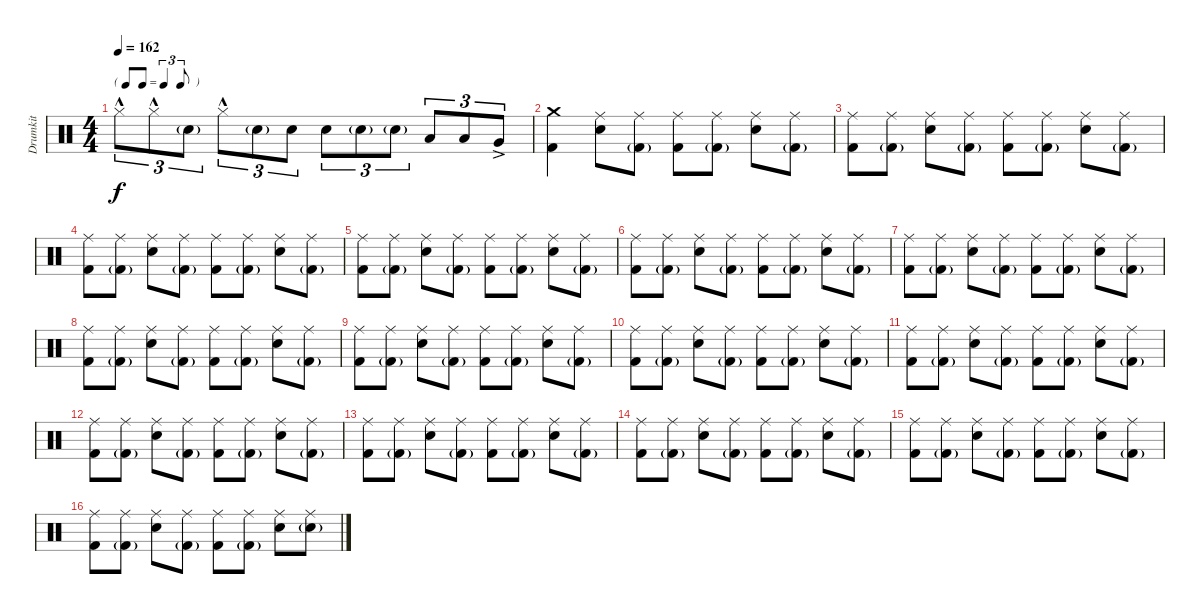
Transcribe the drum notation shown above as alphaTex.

\track ("Drumkit" "Drumkit") {instrument percussion}
\staff {score}
\articulation defaults
\ts (4 4)
\tf triplet8th
\tempo 162
\clef neutral
\ks c "Hi-Hat (closed)"{hac}.8{tu (3 2) dy f} "Hi-Hat (closed)"{hac}.8{tu (3 2)} "Snare (hit) 2"{g}.8{tu (3 2)} "Hi-Hat (closed)"{hac}.8{tu (3 2)} "Snare (hit) 2"{g}.8{tu (3 2)} "Snare (hit) 2".8{tu (3 2)} "Snare (hit) 2".8{tu (3 2)} "Snare (hit) 2"{g}.8{tu (3 2)} "Snare (hit) 2"{g}.8{tu (3 2)} "Low Tom (hit)".8{tu (3 2)} "Low Tom (hit)".8{tu (3 2)} "Very Low Tom (hit)"{ac}.8{tu (3 2)}
|
("Kick (hit) 2" "Crash medium (hit)").4 ("Snare (hit) 2" "Ride (middle)").8 ("Kick (hit) 2"{g} "Ride (middle)").8 ("Kick (hit) 2" "Ride (middle)").8 ("Kick (hit) 2"{g} "Ride (middle)").8 ("Snare (hit) 2" "Ride (middle)").8 ("Kick (hit) 2"{g} "Ride (middle)").8 |
("Kick (hit) 2" "Ride (middle)").8 ("Kick (hit) 2"{g} "Ride (middle)").8 ("Snare (hit) 2" "Ride (middle)").8 ("Kick (hit) 2"{g} "Ride (middle)").8 ("Kick (hit) 2" "Ride (middle)").8 ("Kick (hit) 2"{g} "Ride (middle)").8 ("Snare (hit) 2" "Ride (middle)").8 ("Kick (hit) 2"{g} "Ride (middle)").8 |
("Kick (hit) 2" "Ride (middle)").8 ("Kick (hit) 2"{g} "Ride (middle)").8 ("Snare (hit) 2" "Ride (middle)").8 ("Kick (hit) 2"{g} "Ride (middle)").8 ("Kick (hit) 2" "Ride (middle)").8 ("Kick (hit) 2"{g} "Ride (middle)").8 ("Snare (hit) 2" "Ride (middle)").8 ("Kick (hit) 2"{g} "Ride (middle)").8 |
("Kick (hit) 2" "Ride (middle)").8 ("Kick (hit) 2"{g} "Ride (middle)").8 ("Snare (hit) 2" "Ride (middle)").8 ("Kick (hit) 2"{g} "Ride (middle)").8 ("Kick (hit) 2" "Ride (middle)").8 ("Kick (hit) 2"{g} "Ride (middle)").8 ("Snare (hit) 2" "Ride (middle)").8 ("Kick (hit) 2"{g} "Ride (middle)").8 |
("Kick (hit) 2" "Ride (middle)").8 ("Kick (hit) 2"{g} "Ride (middle)").8 ("Snare (hit) 2" "Ride (middle)").8 ("Kick (hit) 2"{g} "Ride (middle)").8 ("Kick (hit) 2" "Ride (middle)").8 ("Kick (hit) 2"{g} "Ride (middle)").8 ("Snare (hit) 2" "Ride (middle)").8 ("Kick (hit) 2"{g} "Ride (middle)").8 |
("Kick (hit) 2" "Ride (middle)").8 ("Kick (hit) 2"{g} "Ride (middle)").8 ("Snare (hit) 2" "Ride (middle)").8 ("Kick (hit) 2"{g} "Ride (middle)").8 ("Kick (hit) 2" "Ride (middle)").8 ("Kick (hit) 2"{g} "Ride (middle)").8 ("Snare (hit) 2" "Ride (middle)").8 ("Kick (hit) 2"{g} "Ride (middle)").8 |
("Kick (hit) 2" "Ride (middle)").8 ("Kick (hit) 2"{g} "Ride (middle)").8 ("Snare (hit) 2" "Ride (middle)").8 ("Kick (hit) 2"{g} "Ride (middle)").8 ("Kick (hit) 2" "Ride (middle)").8 ("Kick (hit) 2"{g} "Ride (middle)").8 ("Snare (hit) 2" "Ride (middle)").8 ("Kick (hit) 2"{g} "Ride (middle)").8 |
("Kick (hit) 2" "Ride (middle)").8 ("Kick (hit) 2"{g} "Ride (middle)").8 ("Snare (hit) 2" "Ride (middle)").8 ("Kick (hit) 2"{g} "Ride (middle)").8 ("Kick (hit) 2" "Ride (middle)").8 ("Kick (hit) 2"{g} "Ride (middle)").8 ("Snare (hit) 2" "Ride (middle)").8 ("Kick (hit) 2"{g} "Ride (middle)").8 |
("Kick (hit) 2" "Ride (middle)").8 ("Kick (hit) 2"{g} "Ride (middle)").8 ("Snare (hit) 2" "Ride (middle)").8 ("Kick (hit) 2"{g} "Ride (middle)").8 ("Kick (hit) 2" "Ride (middle)").8 ("Kick (hit) 2"{g} "Ride (middle)").8 ("Snare (hit) 2" "Ride (middle)").8 ("Kick (hit) 2"{g} "Ride (middle)").8 |
("Kick (hit) 2" "Ride (middle)").8 ("Kick (hit) 2"{g} "Ride (middle)").8 ("Snare (hit) 2" "Ride (middle)").8 ("Kick (hit) 2"{g} "Ride (middle)").8 ("Kick (hit) 2" "Ride (middle)").8 ("Kick (hit) 2"{g} "Ride (middle)").8 ("Snare (hit) 2" "Ride (middle)").8 ("Kick (hit) 2"{g} "Ride (middle)").8 |
("Kick (hit) 2" "Ride (middle)").8 ("Kick (hit) 2"{g} "Ride (middle)").8 ("Snare (hit) 2" "Ride (middle)").8 ("Kick (hit) 2"{g} "Ride (middle)").8 ("Kick (hit) 2" "Ride (middle)").8 ("Kick (hit) 2"{g} "Ride (middle)").8 ("Snare (hit) 2" "Ride (middle)").8 ("Kick (hit) 2"{g} "Ride (middle)").8 |
("Kick (hit) 2" "Ride (middle)").8 ("Kick (hit) 2"{g} "Ride (middle)").8 ("Snare (hit) 2" "Ride (middle)").8 ("Kick (hit) 2"{g} "Ride (middle)").8 ("Kick (hit) 2" "Ride (middle)").8 ("Kick (hit) 2"{g} "Ride (middle)").8 ("Snare (hit) 2" "Ride (middle)").8 ("Kick (hit) 2"{g} "Ride (middle)").8 |
("Kick (hit) 2" "Ride (middle)").8 ("Kick (hit) 2"{g} "Ride (middle)").8 ("Snare (hit) 2" "Ride (middle)").8 ("Kick (hit) 2"{g} "Ride (middle)").8 ("Kick (hit) 2" "Ride (middle)").8 ("Kick (hit) 2"{g} "Ride (middle)").8 ("Snare (hit) 2" "Ride (middle)").8 ("Kick (hit) 2"{g} "Ride (middle)").8 |
("Kick (hit) 2" "Ride (middle)").8 ("Kick (hit) 2"{g} "Ride (middle)").8 ("Snare (hit) 2" "Ride (middle)").8 ("Kick (hit) 2"{g} "Ride (middle)").8 ("Kick (hit) 2" "Ride (middle)").8 ("Kick (hit) 2"{g} "Ride (middle)").8 ("Snare (hit) 2" "Ride (middle)").8 ("Kick (hit) 2"{g} "Ride (middle)").8 |
("Kick (hit) 2" "Ride (middle)").8 ("Kick (hit) 2"{g} "Ride (middle)").8 ("Snare (hit) 2" "Ride (middle)").8 ("Kick (hit) 2"{g} "Ride (middle)").8 ("Kick (hit) 2" "Ride (middle)").8 ("Kick (hit) 2"{g} "Ride (middle)").8 ("Snare (hit) 2" "Ride (middle)").8 ("Ride (middle)" "Snare (hit) 2"{g}).8
